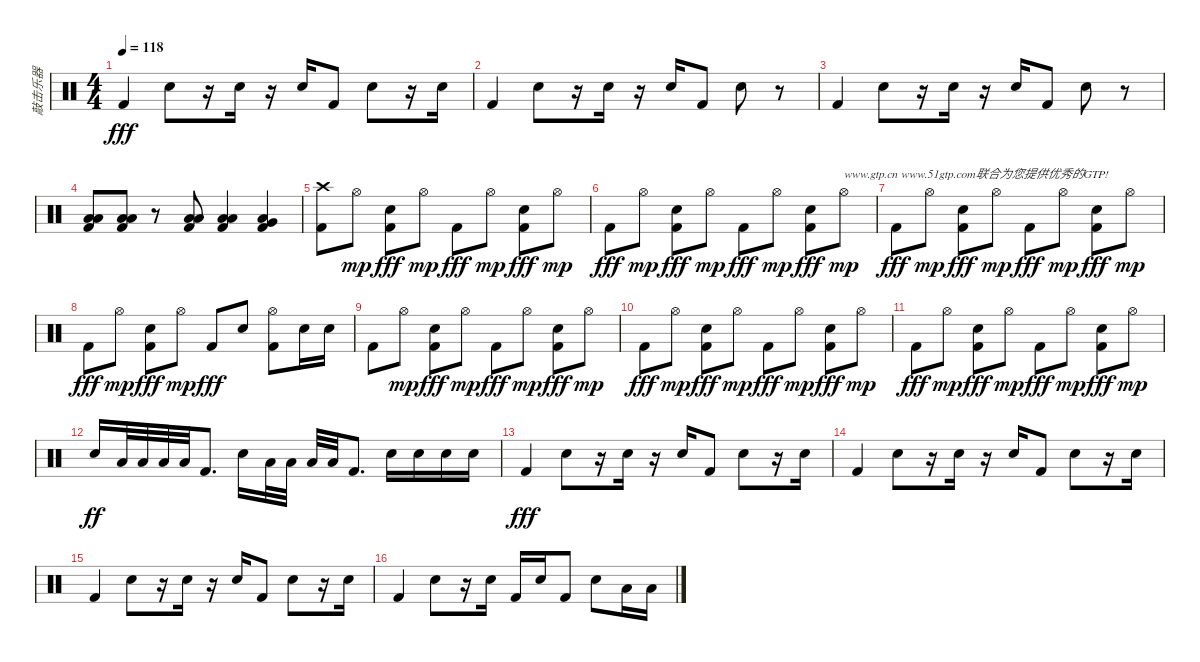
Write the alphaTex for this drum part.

\track ("敲击乐器" "敲击乐器") {instrument percussion}
\staff {score}
\articulation defaults
\ts (4 4)
\tempo 118
\clef neutral
\ks c "Kick (hit) 2".4{dy fff} "Snare (hit) 2".8
r.16 "Snare (hit) 2".16 r.16 "Snare (hit) 2".16 "Kick (hit) 2".8 "Snare (hit) 2".8 r.16 "Snare (hit) 2".16 |
"Kick (hit) 2".4 "Snare (hit) 2".8 r.16 "Snare (hit) 2".16 r.16 "Snare (hit) 2".16 "Kick (hit) 2".8 "Snare (hit) 2".8 r.8 |
"Kick (hit) 2".4 "Snare (hit) 2".8 r.16 "Snare (hit) 2".16 r.16 "Snare (hit) 2".16 "Kick (hit) 2".8 "Snare (hit) 2".8 r.8 |
("Low Tom (hit)" "Low Tom (hit)" "Kick (hit) 2").8 ("Low Tom (hit)" "Low Tom (hit)" "Kick (hit) 2").8 r.8 ("Low Tom (hit)" "Low Tom (hit)" "Kick (hit) 2").8 ("Low Tom (hit)" "Low Tom (hit)" "Kick (hit) 2").4 ("Very Low Tom (hit)" "Low Floor Tom (hit)" "Kick (hit) 2").4 |
("Crash high (hit)" "Kick (hit) 2").8 "Hi-Hat (open)".8{dy mp} ("Snare (hit) 2" "Kick (hit) 2").8{dy fff} "Hi-Hat (open)".8{dy mp} "Kick (hit) 2".8{dy fff} "Hi-Hat (open)".8{dy mp} ("Snare (hit) 2" "Kick (hit) 2").8{dy fff} "Hi-Hat (open)".8{dy mp} |
"Kick (hit) 2".8{dy fff} "Hi-Hat (open)".8{dy mp} ("Snare (hit) 2" "Kick (hit) 2").8{dy fff} "Hi-Hat (open)".8{dy mp} "Kick (hit) 2".8{dy fff} "Hi-Hat (open)".8{dy mp} ("Snare (hit) 2" "Kick (hit) 2").8{dy fff} "Hi-Hat (open)".8{txt "www.gtp.cn www.51gtp.com联合为您提供优秀的GTP!" dy mp} |
"Kick (hit) 2".8{dy fff} "Hi-Hat (open)".8{dy mp} ("Snare (hit) 2" "Kick (hit) 2").8{dy fff} "Hi-Hat (open)".8{dy mp} "Kick (hit) 2".8{dy fff} "Hi-Hat (open)".8{dy mp} ("Snare (hit) 2" "Kick (hit) 2").8{dy fff} "Hi-Hat (open)".8{dy mp} |
"Kick (hit) 2".8{dy fff} "Hi-Hat (open)".8{dy mp} ("Snare (hit) 2" "Kick (hit) 2").8{dy fff} "Hi-Hat (open)".8{dy mp} "Kick (hit) 2".8{dy fff} "Snare (hit) 2".8 ("Hi-Hat (open)" "Kick (hit) 2").8 "Snare (hit) 2".16 "Snare (hit) 2".16 |
"Kick (hit) 2".8 "Hi-Hat (open)".8{dy mp} ("Snare (hit) 2" "Kick (hit) 2").8{dy fff} "Hi-Hat (open)".8{dy mp} "Kick (hit) 2".8{dy fff} "Hi-Hat (open)".8{dy mp} ("Snare (hit) 2" "Kick (hit) 2").8{dy fff} "Hi-Hat (open)".8{dy mp} |
"Kick (hit) 2".8{dy fff} "Hi-Hat (open)".8{dy mp} ("Snare (hit) 2" "Kick (hit) 2").8{dy fff} "Hi-Hat (open)".8{dy mp} "Kick (hit) 2".8{dy fff} "Hi-Hat (open)".8{dy mp} ("Snare (hit) 2" "Kick (hit) 2").8{dy fff} "Hi-Hat (open)".8{dy mp} |
"Kick (hit) 2".8{dy fff} "Hi-Hat (open)".8{dy mp} ("Snare (hit) 2" "Kick (hit) 2").8{dy fff} "Hi-Hat (open)".8{dy mp} "Kick (hit) 2".8{dy fff} "Hi-Hat (open)".8{dy mp} ("Snare (hit) 2" "Kick (hit) 2").8{dy fff} "Hi-Hat (open)".8{dy mp} |
"Snare (hit) 2".16{dy ff} "Low Tom (hit)".32 "Low Tom (hit)".32 "Low Floor Tom (hit)".32 "Low Floor Tom (hit)".32 "Kick (hit) 2".8{d} "Snare (hit) 2".16 "Low Tom (hit)".32 "Low Tom (hit)".32 "Low Floor Tom (hit)".32 "Low Floor Tom (hit)".32 "Kick (hit) 2".8{d} "Snare (hit) 2".16 "Snare (hit) 2".16 "Snare (hit) 2".16 "Snare (hit) 2".16 |
"Kick (hit) 2".4{dy fff} "Snare (hit) 2".8 r.16 "Snare (hit) 2".16 r.16 "Snare (hit) 2".16 "Kick (hit) 2".8 "Snare (hit) 2".8 r.16 "Snare (hit) 2".16 |
"Kick (hit) 2".4 "Snare (hit) 2".8 r.16 "Snare (hit) 2".16 r.16 "Snare (hit) 2".16 "Kick (hit) 2".8 "Snare (hit) 2".8 r.16 "Snare (hit) 2".16 |
"Kick (hit) 2".4 "Snare (hit) 2".8 r.16 "Snare (hit) 2".16 r.16 "Snare (hit) 2".16 "Kick (hit) 2".8 "Snare (hit) 2".8 r.16 "Snare (hit) 2".16 |
"Kick (hit) 2".4 "Snare (hit) 2".8 r.16 "Snare (hit) 2".16 "Kick (hit) 2".16 "Snare (hit) 2".16 "Kick (hit) 2".8 "Snare (hit) 2".8 "Low Tom (hit)".16 "Low Floor Tom (hit)".16
